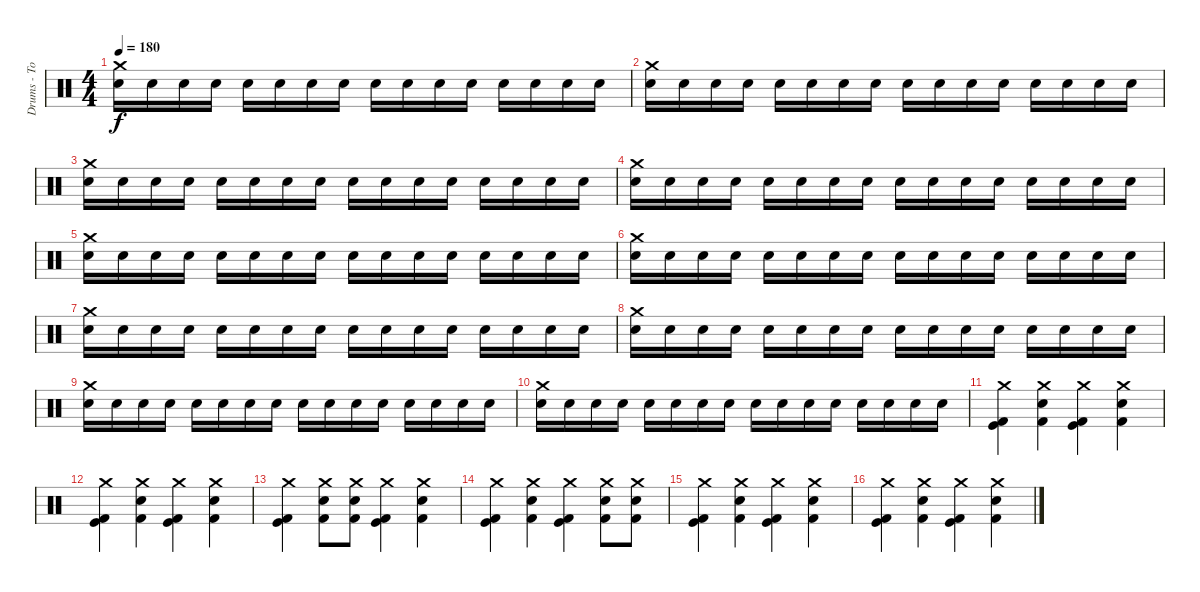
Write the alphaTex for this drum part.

\track ("Drums - Tom" "Drums - To") {instrument percussion}
\staff {score}
\articulation defaults
\ts (4 4)
\tempo 180
\clef neutral
\ks c
("Crash medium (hit)" "Snare (hit) 2").16{dy f} "Snare (hit) 2".16 "Snare (hit) 2".16 "Snare (hit) 2".16 "Snare (hit) 2".16 "Snare (hit) 2".16 "Snare (hit) 2".16 "Snare (hit) 2".16 "Snare (hit) 2".16 "Snare (hit) 2".16 "Snare (hit) 2".16 "Snare (hit) 2".16 "Snare (hit) 2".16 "Snare (hit) 2".16 "Snare (hit) 2".16 "Snare (hit) 2".16 |
("Crash medium (hit)" "Snare (hit) 2").16 "Snare (hit) 2".16 "Snare (hit) 2".16 "Snare (hit) 2".16 "Snare (hit) 2".16 "Snare (hit) 2".16 "Snare (hit) 2".16 "Snare (hit) 2".16 "Snare (hit) 2".16 "Snare (hit) 2".16 "Snare (hit) 2".16 "Snare (hit) 2".16 "Snare (hit) 2".16 "Snare (hit) 2".16 "Snare (hit) 2".16 "Snare (hit) 2".16 |
("Crash medium (hit)" "Snare (hit) 2").16 "Snare (hit) 2".16 "Snare (hit) 2".16 "Snare (hit) 2".16 "Snare (hit) 2".16 "Snare (hit) 2".16 "Snare (hit) 2".16 "Snare (hit) 2".16 "Snare (hit) 2".16 "Snare (hit) 2".16 "Snare (hit) 2".16 "Snare (hit) 2".16 "Snare (hit) 2".16 "Snare (hit) 2".16 "Snare (hit) 2".16 "Snare (hit) 2".16 |
("Crash medium (hit)" "Snare (hit) 2").16 "Snare (hit) 2".16 "Snare (hit) 2".16 "Snare (hit) 2".16 "Snare (hit) 2".16 "Snare (hit) 2".16 "Snare (hit) 2".16 "Snare (hit) 2".16 "Snare (hit) 2".16 "Snare (hit) 2".16 "Snare (hit) 2".16 "Snare (hit) 2".16 "Snare (hit) 2".16 "Snare (hit) 2".16 "Snare (hit) 2".16 "Snare (hit) 2".16 |
("Crash medium (hit)" "Snare (hit) 2").16 "Snare (hit) 2".16 "Snare (hit) 2".16 "Snare (hit) 2".16 "Snare (hit) 2".16 "Snare (hit) 2".16 "Snare (hit) 2".16 "Snare (hit) 2".16 "Snare (hit) 2".16 "Snare (hit) 2".16 "Snare (hit) 2".16 "Snare (hit) 2".16 "Snare (hit) 2".16 "Snare (hit) 2".16 "Snare (hit) 2".16 "Snare (hit) 2".16 |
("Crash medium (hit)" "Snare (hit) 2").16 "Snare (hit) 2".16 "Snare (hit) 2".16 "Snare (hit) 2".16 "Snare (hit) 2".16 "Snare (hit) 2".16 "Snare (hit) 2".16 "Snare (hit) 2".16 "Snare (hit) 2".16 "Snare (hit) 2".16 "Snare (hit) 2".16 "Snare (hit) 2".16 "Snare (hit) 2".16 "Snare (hit) 2".16 "Snare (hit) 2".16 "Snare (hit) 2".16 |
("Crash medium (hit)" "Snare (hit) 2").16 "Snare (hit) 2".16 "Snare (hit) 2".16 "Snare (hit) 2".16 "Snare (hit) 2".16 "Snare (hit) 2".16 "Snare (hit) 2".16 "Snare (hit) 2".16 "Snare (hit) 2".16 "Snare (hit) 2".16 "Snare (hit) 2".16 "Snare (hit) 2".16 "Snare (hit) 2".16 "Snare (hit) 2".16 "Snare (hit) 2".16 "Snare (hit) 2".16 |
("Crash medium (hit)" "Snare (hit) 2").16 "Snare (hit) 2".16 "Snare (hit) 2".16 "Snare (hit) 2".16 "Snare (hit) 2".16 "Snare (hit) 2".16 "Snare (hit) 2".16 "Snare (hit) 2".16 "Snare (hit) 2".16 "Snare (hit) 2".16 "Snare (hit) 2".16 "Snare (hit) 2".16 "Snare (hit) 2".16 "Snare (hit) 2".16 "Snare (hit) 2".16 "Snare (hit) 2".16 |
("Crash medium (hit)" "Snare (hit) 2").16 "Snare (hit) 2".16 "Snare (hit) 2".16 "Snare (hit) 2".16 "Snare (hit) 2".16 "Snare (hit) 2".16 "Snare (hit) 2".16 "Snare (hit) 2".16 "Snare (hit) 2".16 "Snare (hit) 2".16 "Snare (hit) 2".16 "Snare (hit) 2".16 "Snare (hit) 2".16 "Snare (hit) 2".16 "Snare (hit) 2".16 "Snare (hit) 2".16 |
("Crash medium (hit)" "Snare (hit) 2").16 "Snare (hit) 2".16 "Snare (hit) 2".16 "Snare (hit) 2".16 "Snare (hit) 2".16 "Snare (hit) 2".16 "Snare (hit) 2".16 "Snare (hit) 2".16 "Snare (hit) 2".16 "Snare (hit) 2".16 "Snare (hit) 2".16 "Snare (hit) 2".16 "Snare (hit) 2".16 "Snare (hit) 2".16 "Snare (hit) 2".16 "Snare (hit) 2".16 |
("Kick (hit) 2" "Crash medium (hit)" "Kick (hit)").4 ("Kick (hit) 2" "Crash medium (hit)" "Snare (hit) 2").4 ("Kick (hit) 2" "Crash medium (hit)" "Kick (hit)").4 ("Kick (hit) 2" "Crash medium (hit)" "Snare (hit) 2").4 |
("Kick (hit) 2" "Crash medium (hit)" "Kick (hit)").4 ("Kick (hit) 2" "Crash medium (hit)" "Snare (hit) 2").4 ("Kick (hit) 2" "Crash medium (hit)" "Kick (hit)").4 ("Kick (hit) 2" "Crash medium (hit)" "Snare (hit) 2").4 |
("Kick (hit) 2" "Crash medium (hit)" "Kick (hit)").4 ("Kick (hit) 2" "Crash medium (hit)" "Snare (hit) 2").8 ("Kick (hit) 2" "Crash medium (hit)" "Snare (hit) 2").8 ("Kick (hit) 2" "Crash medium (hit)" "Kick (hit)").4 ("Kick (hit) 2" "Crash medium (hit)" "Snare (hit) 2").4 |
("Kick (hit) 2" "Crash medium (hit)" "Kick (hit)").4 ("Kick (hit) 2" "Crash medium (hit)" "Snare (hit) 2").4 ("Kick (hit) 2" "Crash medium (hit)" "Kick (hit)").4 ("Kick (hit) 2" "Crash medium (hit)" "Snare (hit) 2").8 ("Kick (hit) 2" "Crash medium (hit)" "Snare (hit) 2").8 |
("Kick (hit) 2" "Crash medium (hit)" "Kick (hit)").4 ("Kick (hit) 2" "Crash medium (hit)" "Snare (hit) 2").4 ("Kick (hit) 2" "Crash medium (hit)" "Kick (hit)").4 ("Kick (hit) 2" "Crash medium (hit)" "Snare (hit) 2").4 |
("Kick (hit) 2" "Crash medium (hit)" "Kick (hit)").4 ("Kick (hit) 2" "Crash medium (hit)" "Snare (hit) 2").4 ("Kick (hit) 2" "Crash medium (hit)" "Kick (hit)").4 ("Kick (hit) 2" "Crash medium (hit)" "Snare (hit) 2").4
